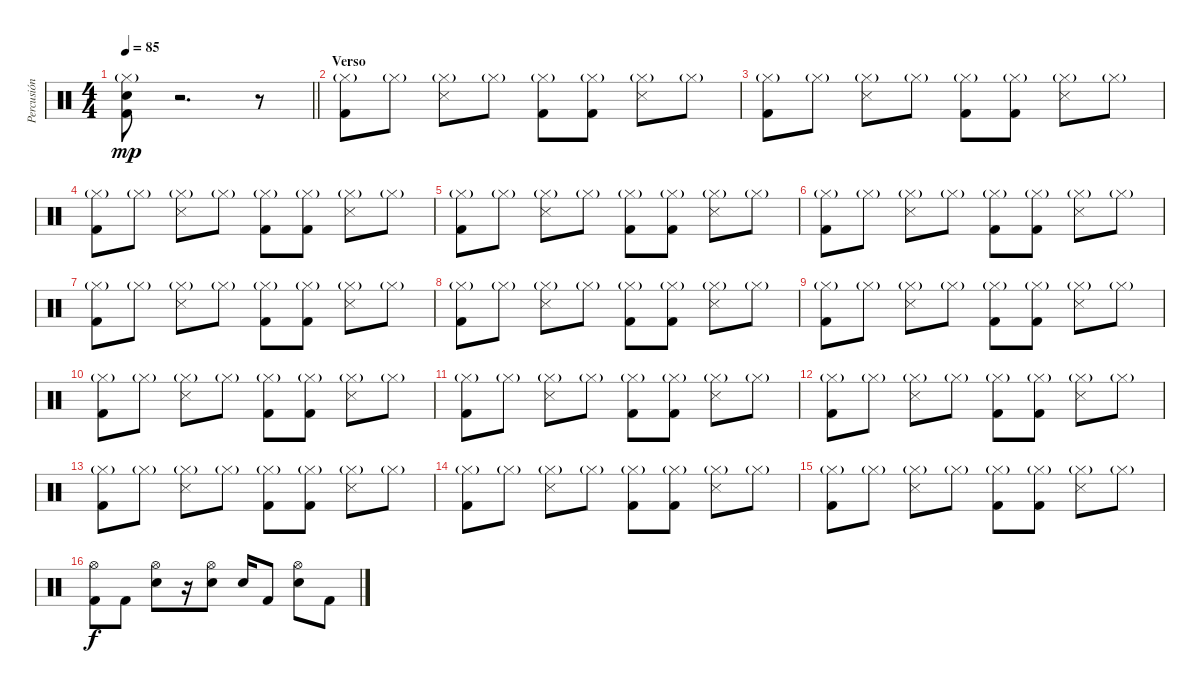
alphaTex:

\track ("Percusión" "Percusión") {instrument percussion}
\staff {score}
\articulation defaults
\ts (4 4)
\tempo 85
\clef neutral
\barLineRight lightlight
\ks c
("Hi-Hat (closed)"{g} "Kick (hit) 2" "Snare (hit) 2").8{dy mp} r.2{d} r.8 |
\section ("" "Verso")
("Hi-Hat (closed)"{g} "Kick (hit) 2").8 "Hi-Hat (closed)"{g}.8 ("Hi-Hat (closed)"{g} "Snare (side stick) 3").8 "Hi-Hat (closed)"{g}.8 ("Hi-Hat (closed)"{g} "Kick (hit) 2").8 ("Hi-Hat (closed)"{g} "Kick (hit) 2").8 ("Hi-Hat (closed)"{g} "Snare (side stick) 3").8 "Hi-Hat (closed)"{g}.8 |
("Hi-Hat (closed)"{g} "Kick (hit) 2").8 "Hi-Hat (closed)"{g}.8 ("Hi-Hat (closed)"{g} "Snare (side stick) 3").8 "Hi-Hat (closed)"{g}.8 ("Hi-Hat (closed)"{g} "Kick (hit) 2").8 ("Hi-Hat (closed)"{g} "Kick (hit) 2").8 ("Hi-Hat (closed)"{g} "Snare (side stick) 3").8 "Hi-Hat (closed)"{g}.8 |
("Hi-Hat (closed)"{g} "Kick (hit) 2").8 "Hi-Hat (closed)"{g}.8 ("Hi-Hat (closed)"{g} "Snare (side stick) 3").8 "Hi-Hat (closed)"{g}.8 ("Hi-Hat (closed)"{g} "Kick (hit) 2").8 ("Hi-Hat (closed)"{g} "Kick (hit) 2").8 ("Hi-Hat (closed)"{g} "Snare (side stick) 3").8 "Hi-Hat (closed)"{g}.8 |
("Hi-Hat (closed)"{g} "Kick (hit) 2").8 "Hi-Hat (closed)"{g}.8 ("Hi-Hat (closed)"{g} "Snare (side stick) 3").8 "Hi-Hat (closed)"{g}.8 ("Hi-Hat (closed)"{g} "Kick (hit) 2").8 ("Hi-Hat (closed)"{g} "Kick (hit) 2").8 ("Hi-Hat (closed)"{g} "Snare (side stick) 3").8 "Hi-Hat (closed)"{g}.8 |
("Hi-Hat (closed)"{g} "Kick (hit) 2").8 "Hi-Hat (closed)"{g}.8 ("Hi-Hat (closed)"{g} "Snare (side stick) 3").8 "Hi-Hat (closed)"{g}.8 ("Hi-Hat (closed)"{g} "Kick (hit) 2").8 ("Hi-Hat (closed)"{g} "Kick (hit) 2").8 ("Hi-Hat (closed)"{g} "Snare (side stick) 3").8 "Hi-Hat (closed)"{g}.8 |
("Hi-Hat (closed)"{g} "Kick (hit) 2").8 "Hi-Hat (closed)"{g}.8 ("Hi-Hat (closed)"{g} "Snare (side stick) 3").8 "Hi-Hat (closed)"{g}.8 ("Hi-Hat (closed)"{g} "Kick (hit) 2").8 ("Hi-Hat (closed)"{g} "Kick (hit) 2").8 ("Hi-Hat (closed)"{g} "Snare (side stick) 3").8 "Hi-Hat (closed)"{g}.8 |
("Hi-Hat (closed)"{g} "Kick (hit) 2").8 "Hi-Hat (closed)"{g}.8 ("Hi-Hat (closed)"{g} "Snare (side stick) 3").8 "Hi-Hat (closed)"{g}.8 ("Hi-Hat (closed)"{g} "Kick (hit) 2").8 ("Hi-Hat (closed)"{g} "Kick (hit) 2").8 ("Hi-Hat (closed)"{g} "Snare (side stick) 3").8 "Hi-Hat (closed)"{g}.8 |
("Hi-Hat (closed)"{g} "Kick (hit) 2").8 "Hi-Hat (closed)"{g}.8 ("Hi-Hat (closed)"{g} "Snare (side stick) 3").8 "Hi-Hat (closed)"{g}.8 ("Hi-Hat (closed)"{g} "Kick (hit) 2").8 ("Hi-Hat (closed)"{g} "Kick (hit) 2").8 ("Hi-Hat (closed)"{g} "Snare (side stick) 3").8 "Hi-Hat (closed)"{g}.8 |
("Hi-Hat (closed)"{g} "Kick (hit) 2").8 "Hi-Hat (closed)"{g}.8 ("Hi-Hat (closed)"{g} "Snare (side stick) 3").8 "Hi-Hat (closed)"{g}.8 ("Hi-Hat (closed)"{g} "Kick (hit) 2").8 ("Hi-Hat (closed)"{g} "Kick (hit) 2").8 ("Hi-Hat (closed)"{g} "Snare (side stick) 3").8 "Hi-Hat (closed)"{g}.8 |
("Hi-Hat (closed)"{g} "Kick (hit) 2").8 "Hi-Hat (closed)"{g}.8 ("Hi-Hat (closed)"{g} "Snare (side stick) 3").8 "Hi-Hat (closed)"{g}.8 ("Hi-Hat (closed)"{g} "Kick (hit) 2").8 ("Hi-Hat (closed)"{g} "Kick (hit) 2").8 ("Hi-Hat (closed)"{g} "Snare (side stick) 3").8 "Hi-Hat (closed)"{g}.8 |
("Hi-Hat (closed)"{g} "Kick (hit) 2").8 "Hi-Hat (closed)"{g}.8 ("Hi-Hat (closed)"{g} "Snare (side stick) 3").8 "Hi-Hat (closed)"{g}.8 ("Hi-Hat (closed)"{g} "Kick (hit) 2").8 ("Hi-Hat (closed)"{g} "Kick (hit) 2").8 ("Hi-Hat (closed)"{g} "Snare (side stick) 3").8 "Hi-Hat (closed)"{g}.8 |
("Hi-Hat (closed)"{g} "Kick (hit) 2").8 "Hi-Hat (closed)"{g}.8 ("Hi-Hat (closed)"{g} "Snare (side stick) 3").8 "Hi-Hat (closed)"{g}.8 ("Hi-Hat (closed)"{g} "Kick (hit) 2").8 ("Hi-Hat (closed)"{g} "Kick (hit) 2").8 ("Hi-Hat (closed)"{g} "Snare (side stick) 3").8 "Hi-Hat (closed)"{g}.8 |
("Hi-Hat (closed)"{g} "Kick (hit) 2").8 "Hi-Hat (closed)"{g}.8 ("Hi-Hat (closed)"{g} "Snare (side stick) 3").8 "Hi-Hat (closed)"{g}.8 ("Hi-Hat (closed)"{g} "Kick (hit) 2").8 ("Hi-Hat (closed)"{g} "Kick (hit) 2").8 ("Hi-Hat (closed)"{g} "Snare (side stick) 3").8 "Hi-Hat (closed)"{g}.8 |
("Hi-Hat (closed)"{g} "Kick (hit) 2").8 "Hi-Hat (closed)"{g}.8 ("Hi-Hat (closed)"{g} "Snare (side stick) 3").8 "Hi-Hat (closed)"{g}.8 ("Hi-Hat (closed)"{g} "Kick (hit) 2").8 ("Hi-Hat (closed)"{g} "Kick (hit) 2").8 ("Hi-Hat (closed)"{g} "Snare (side stick) 3").8 "Hi-Hat (closed)"{g}.8 |
("Hi-Hat (open)" "Kick (hit) 2").8{dy f} "Kick (hit) 2".8 ("Hi-Hat (open)" "Electric Snare (hit)").8 r.16 ("Hi-Hat (open)" "Electric Snare (hit)").8 "Electric Snare (hit)".16 "Kick (hit) 2".8 ("Hi-Hat (open)" "Electric Snare (hit)").8 "Kick (hit) 2".8
